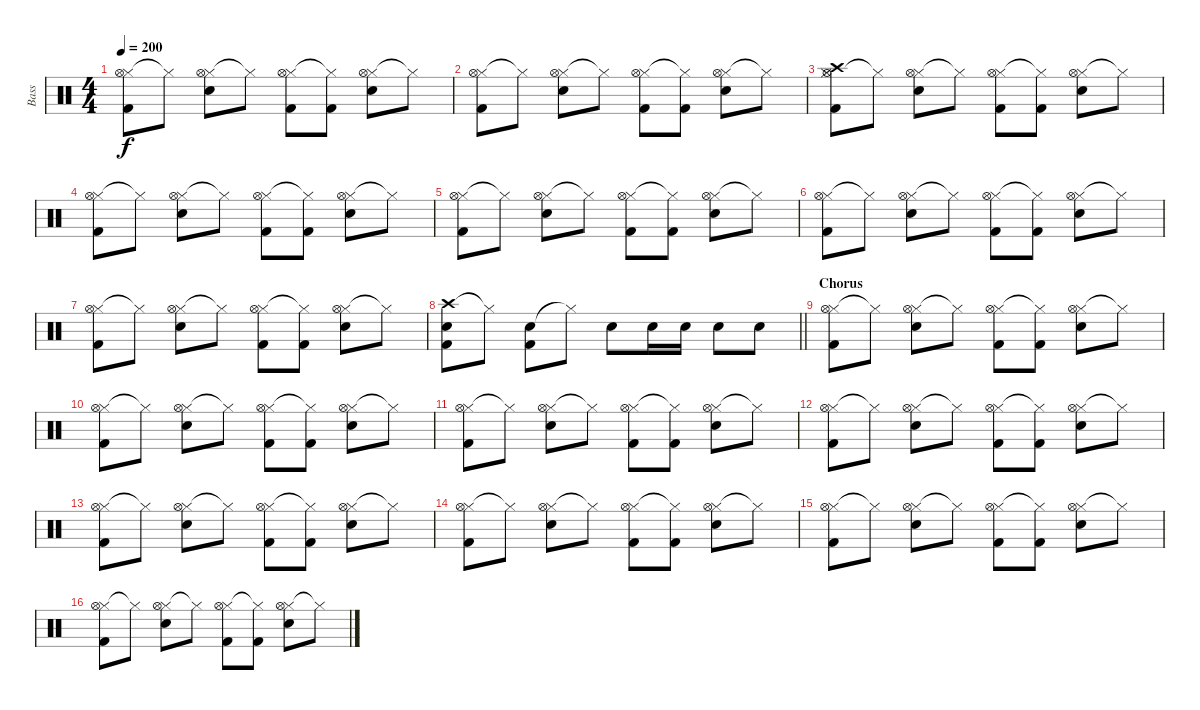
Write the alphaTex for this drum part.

\track ("Bass" "Bass") {instrument percussion}
\staff {score}
\articulation defaults
\ts (4 4)
\tempo 200
\clef neutral
\ks c
("Hi-Hat (closed)" "Hi-Hat (open)" "Kick (hit) 2").8{dy f} "Hi-Hat (closed)"{t}.8 ("Hi-Hat (closed)" "Hi-Hat (open)" "Snare (hit) 2").8 "Hi-Hat (closed)"{t}.8 ("Hi-Hat (closed)" "Hi-Hat (open)" "Kick (hit) 2").8 ("Hi-Hat (closed)"{t} "Kick (hit) 2").8 ("Hi-Hat (closed)" "Hi-Hat (open)" "Snare (hit) 2").8 "Hi-Hat (closed)"{t}.8 |
("Hi-Hat (closed)" "Hi-Hat (open)" "Kick (hit) 2").8 "Hi-Hat (closed)"{t}.8 ("Hi-Hat (closed)" "Hi-Hat (open)" "Snare (hit) 2").8 "Hi-Hat (closed)"{t}.8 ("Hi-Hat (closed)" "Hi-Hat (open)" "Kick (hit) 2").8 ("Hi-Hat (closed)"{t} "Kick (hit) 2").8 ("Hi-Hat (closed)" "Hi-Hat (open)" "Snare (hit) 2").8 "Hi-Hat (closed)"{t}.8 |
("Hi-Hat (closed)" "Hi-Hat (open)" "Crash high (hit)" "Kick (hit) 2").8 "Hi-Hat (closed)"{t}.8 ("Hi-Hat (closed)" "Hi-Hat (open)" "Snare (hit) 2").8 "Hi-Hat (closed)"{t}.8 ("Hi-Hat (closed)" "Hi-Hat (open)" "Kick (hit) 2").8 ("Hi-Hat (closed)"{t} "Kick (hit) 2").8 ("Hi-Hat (closed)" "Hi-Hat (open)" "Snare (hit) 2").8 "Hi-Hat (closed)"{t}.8 |
("Hi-Hat (closed)" "Hi-Hat (open)" "Kick (hit) 2").8 "Hi-Hat (closed)"{t}.8 ("Hi-Hat (closed)" "Hi-Hat (open)" "Snare (hit) 2").8 "Hi-Hat (closed)"{t}.8 ("Hi-Hat (closed)" "Hi-Hat (open)" "Kick (hit) 2").8 ("Hi-Hat (closed)"{t} "Kick (hit) 2").8 ("Hi-Hat (closed)" "Hi-Hat (open)" "Snare (hit) 2").8 "Hi-Hat (closed)"{t}.8 |
("Hi-Hat (closed)" "Hi-Hat (open)" "Kick (hit) 2").8 "Hi-Hat (closed)"{t}.8 ("Hi-Hat (closed)" "Hi-Hat (open)" "Snare (hit) 2").8 "Hi-Hat (closed)"{t}.8 ("Hi-Hat (closed)" "Hi-Hat (open)" "Kick (hit) 2").8 ("Hi-Hat (closed)"{t} "Kick (hit) 2").8 ("Hi-Hat (closed)" "Hi-Hat (open)" "Snare (hit) 2").8 "Hi-Hat (closed)"{t}.8 |
("Hi-Hat (closed)" "Hi-Hat (open)" "Kick (hit) 2").8 "Hi-Hat (closed)"{t}.8 ("Hi-Hat (closed)" "Hi-Hat (open)" "Snare (hit) 2").8 "Hi-Hat (closed)"{t}.8 ("Hi-Hat (closed)" "Hi-Hat (open)" "Kick (hit) 2").8 ("Hi-Hat (closed)"{t} "Kick (hit) 2").8 ("Hi-Hat (closed)" "Hi-Hat (open)" "Snare (hit) 2").8 "Hi-Hat (closed)"{t}.8 |
("Hi-Hat (closed)" "Hi-Hat (open)" "Kick (hit) 2").8 "Hi-Hat (closed)"{t}.8 ("Hi-Hat (closed)" "Hi-Hat (open)" "Snare (hit) 2").8 "Hi-Hat (closed)"{t}.8 ("Hi-Hat (closed)" "Hi-Hat (open)" "Kick (hit) 2").8 ("Hi-Hat (closed)"{t} "Kick (hit) 2").8 ("Hi-Hat (closed)" "Hi-Hat (open)" "Snare (hit) 2").8 "Hi-Hat (closed)"{t}.8 |
\barLineRight lightlight
("Crash high (hit)" "Snare (hit) 2" "Kick (hit) 2").8 "Hi-Hat (closed)"{t}.8 ("Snare (hit) 2" "Kick (hit) 2").8 "Hi-Hat (closed)"{t}.8 "Snare (hit) 2".8 "Snare (hit) 2".16 "Snare (hit) 2".16 "Snare (hit) 2".8 "Snare (hit) 2".8 |
\section ("" "Chorus")
("Hi-Hat (closed)" "Hi-Hat (open)" "Kick (hit) 2").8 "Hi-Hat (closed)"{t}.8 ("Hi-Hat (closed)" "Hi-Hat (open)" "Snare (hit) 2").8 "Hi-Hat (closed)"{t}.8 ("Hi-Hat (closed)" "Hi-Hat (open)" "Kick (hit) 2").8 ("Hi-Hat (closed)"{t} "Kick (hit) 2").8 ("Hi-Hat (closed)" "Hi-Hat (open)" "Snare (hit) 2").8 "Hi-Hat (closed)"{t}.8 |
("Hi-Hat (closed)" "Hi-Hat (open)" "Kick (hit) 2").8 "Hi-Hat (closed)"{t}.8 ("Hi-Hat (closed)" "Hi-Hat (open)" "Snare (hit) 2").8 "Hi-Hat (closed)"{t}.8 ("Hi-Hat (closed)" "Hi-Hat (open)" "Kick (hit) 2").8 ("Hi-Hat (closed)"{t} "Kick (hit) 2").8 ("Hi-Hat (closed)" "Hi-Hat (open)" "Snare (hit) 2").8 "Hi-Hat (closed)"{t}.8 |
("Hi-Hat (closed)" "Hi-Hat (open)" "Kick (hit) 2").8 "Hi-Hat (closed)"{t}.8 ("Hi-Hat (closed)" "Hi-Hat (open)" "Snare (hit) 2").8 "Hi-Hat (closed)"{t}.8 ("Hi-Hat (closed)" "Hi-Hat (open)" "Kick (hit) 2").8 ("Hi-Hat (closed)"{t} "Kick (hit) 2").8 ("Hi-Hat (closed)" "Hi-Hat (open)" "Snare (hit) 2").8 "Hi-Hat (closed)"{t}.8 |
("Hi-Hat (closed)" "Hi-Hat (open)" "Kick (hit) 2").8 "Hi-Hat (closed)"{t}.8 ("Hi-Hat (closed)" "Hi-Hat (open)" "Snare (hit) 2").8 "Hi-Hat (closed)"{t}.8 ("Hi-Hat (closed)" "Hi-Hat (open)" "Kick (hit) 2").8 ("Hi-Hat (closed)"{t} "Kick (hit) 2").8 ("Hi-Hat (closed)" "Hi-Hat (open)" "Snare (hit) 2").8 "Hi-Hat (closed)"{t}.8 |
("Hi-Hat (closed)" "Hi-Hat (open)" "Kick (hit) 2").8 "Hi-Hat (closed)"{t}.8 ("Hi-Hat (closed)" "Hi-Hat (open)" "Snare (hit) 2").8 "Hi-Hat (closed)"{t}.8 ("Hi-Hat (closed)" "Hi-Hat (open)" "Kick (hit) 2").8 ("Hi-Hat (closed)"{t} "Kick (hit) 2").8 ("Hi-Hat (closed)" "Hi-Hat (open)" "Snare (hit) 2").8 "Hi-Hat (closed)"{t}.8 |
("Hi-Hat (closed)" "Hi-Hat (open)" "Kick (hit) 2").8 "Hi-Hat (closed)"{t}.8 ("Hi-Hat (closed)" "Hi-Hat (open)" "Snare (hit) 2").8 "Hi-Hat (closed)"{t}.8 ("Hi-Hat (closed)" "Hi-Hat (open)" "Kick (hit) 2").8 ("Hi-Hat (closed)"{t} "Kick (hit) 2").8 ("Hi-Hat (closed)" "Hi-Hat (open)" "Snare (hit) 2").8 "Hi-Hat (closed)"{t}.8 |
("Hi-Hat (closed)" "Hi-Hat (open)" "Kick (hit) 2").8 "Hi-Hat (closed)"{t}.8 ("Hi-Hat (closed)" "Hi-Hat (open)" "Snare (hit) 2").8 "Hi-Hat (closed)"{t}.8 ("Hi-Hat (closed)" "Hi-Hat (open)" "Kick (hit) 2").8 ("Hi-Hat (closed)"{t} "Kick (hit) 2").8 ("Hi-Hat (closed)" "Hi-Hat (open)" "Snare (hit) 2").8 "Hi-Hat (closed)"{t}.8 |
("Hi-Hat (closed)" "Hi-Hat (open)" "Kick (hit) 2").8 "Hi-Hat (closed)"{t}.8 ("Hi-Hat (closed)" "Hi-Hat (open)" "Snare (hit) 2").8 "Hi-Hat (closed)"{t}.8 ("Hi-Hat (closed)" "Hi-Hat (open)" "Kick (hit) 2").8 ("Hi-Hat (closed)"{t} "Kick (hit) 2").8 ("Hi-Hat (closed)" "Hi-Hat (open)" "Snare (hit) 2").8 "Hi-Hat (closed)"{t}.8
